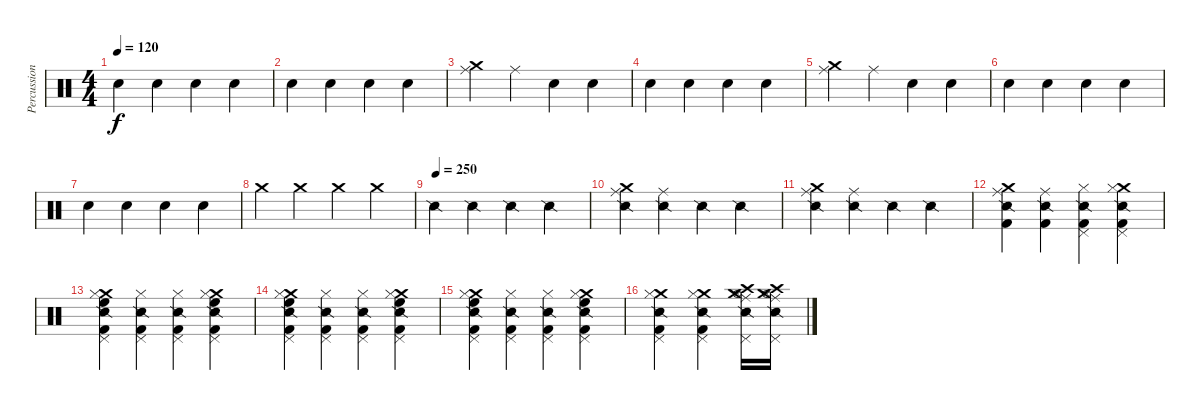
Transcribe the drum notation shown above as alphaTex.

\track ("Percussion" "Percussion") {instrument percussion}
\staff {score}
\articulation defaults
\ts (4 4)
\tempo 120
\tempo 250
\tempo 120
\clef neutral
\ks c "Snare (hit)".4{dy f} "Snare (hit)".4 "Snare (hit)".4 "Snare (hit)".4
|
"Snare (hit)".4 "Snare (hit)".4 "Snare (hit)".4 "Snare (hit)".4 |
("Crash medium (hit)" "Ride (middle)").4 "Ride (middle)".4 "Snare (hit)".4 "Snare (hit)".4 |
"Snare (hit)".4 "Snare (hit)".4 "Snare (hit)".4 "Snare (hit)".4 |
("Crash medium (hit)" "Ride (middle)").4 "Ride (middle)".4 "Snare (hit)".4 "Snare (hit)".4 |
"Snare (hit)".4 "Snare (hit)".4 "Snare (hit)".4 "Snare (hit)".4 |
"Snare (hit)".4 "Snare (hit)".4 "Snare (hit)".4 "Snare (hit)".4 |
"Crash medium (hit)".4 "Crash medium (hit)".4 "Crash medium (hit)".4 "Crash medium (hit)".4 |
\tempo (250)
"Snare (side stick) 2".4 "Snare (side stick) 2".4 "Snare (side stick) 2".4 "Snare (side stick) 2".4 |
("Crash medium (hit)" "Snare (side stick) 2" "Ride (middle)").4 ("Snare (side stick) 2" "Ride (middle)").4 "Snare (side stick) 2".4 "Snare (side stick) 2".4 |
("Crash medium (hit)" "Snare (side stick) 2" "Ride (middle)").4 ("Snare (side stick) 2" "Ride (middle)").4 "Snare (side stick) 2".4 "Snare (side stick) 2".4 |
("Crash medium (hit)" "Snare (side stick) 2" "Ride (middle)" "Kick (hit) 2").4 ("Snare (side stick) 2" "Ride (middle)" "Kick (hit) 2").4 ("Snare (side stick) 2" "Pedal Hi-Hat (hit)" "Hi-Hat (closed)" "Kick (hit) 2").4 ("Crash medium (hit)" "Snare (side stick) 2" "Pedal Hi-Hat (hit)" "Hi-Hat (closed)" "Kick (hit) 2").4 |
("High Floor Tom (hit)" "Crash medium (hit)" "Snare (side stick) 2" "Pedal Hi-Hat (hit)" "Hi-Hat (closed)" "Kick (hit) 2").4 ("Snare (side stick) 2" "Pedal Hi-Hat (hit)" "Hi-Hat (closed)" "Kick (hit) 2").4 ("Snare (side stick) 2" "Pedal Hi-Hat (hit)" "Hi-Hat (closed)" "Kick (hit) 2").4 ("High Floor Tom (hit)" "Crash medium (hit)" "Snare (side stick) 2" "Pedal Hi-Hat (hit)" "Hi-Hat (closed)" "Kick (hit) 2").4 |
("High Floor Tom (hit)" "Crash medium (hit)" "Snare (side stick) 2" "Pedal Hi-Hat (hit)" "Hi-Hat (closed)" "Kick (hit) 2").4 ("Snare (side stick) 2" "Pedal Hi-Hat (hit)" "Hi-Hat (closed)" "Kick (hit) 2").4 ("Snare (side stick) 2" "Pedal Hi-Hat (hit)" "Hi-Hat (closed)" "Kick (hit) 2").4 ("High Floor Tom (hit)" "Crash medium (hit)" "Snare (side stick) 2" "Pedal Hi-Hat (hit)" "Hi-Hat (closed)" "Kick (hit) 2").4 |
("High Floor Tom (hit)" "Crash medium (hit)" "Snare (side stick) 2" "Pedal Hi-Hat (hit)" "Hi-Hat (closed)" "Kick (hit) 2").4 ("Snare (side stick) 2" "Pedal Hi-Hat (hit)" "Hi-Hat (closed)" "Kick (hit) 2").4 ("Snare (side stick) 2" "Pedal Hi-Hat (hit)" "Hi-Hat (closed)" "Kick (hit) 2").4 ("High Floor Tom (hit)" "Crash medium (hit)" "Snare (side stick) 2" "Pedal Hi-Hat (hit)" "Hi-Hat (closed)" "Kick (hit) 2").4 |
("Snare (side stick) 2" "Crash medium (hit)" "Pedal Hi-Hat (hit)" "Hi-Hat (closed)" "Kick (hit) 2").4 ("Snare (side stick) 2" "Crash medium (hit)" "Pedal Hi-Hat (hit)" "Hi-Hat (closed)" "Kick (hit) 2").4 ("Ride (middle)" "Snare (side stick) 2" "Crash medium (hit)" "Pedal Hi-Hat (hit)" "Crash high (hit)" "Hi-Hat (open)").16 ("Ride (middle)" "Snare (side stick) 2" "Crash medium (hit)" "Pedal Hi-Hat (hit)" "Crash high (hit)" "Hi-Hat (open)").16
